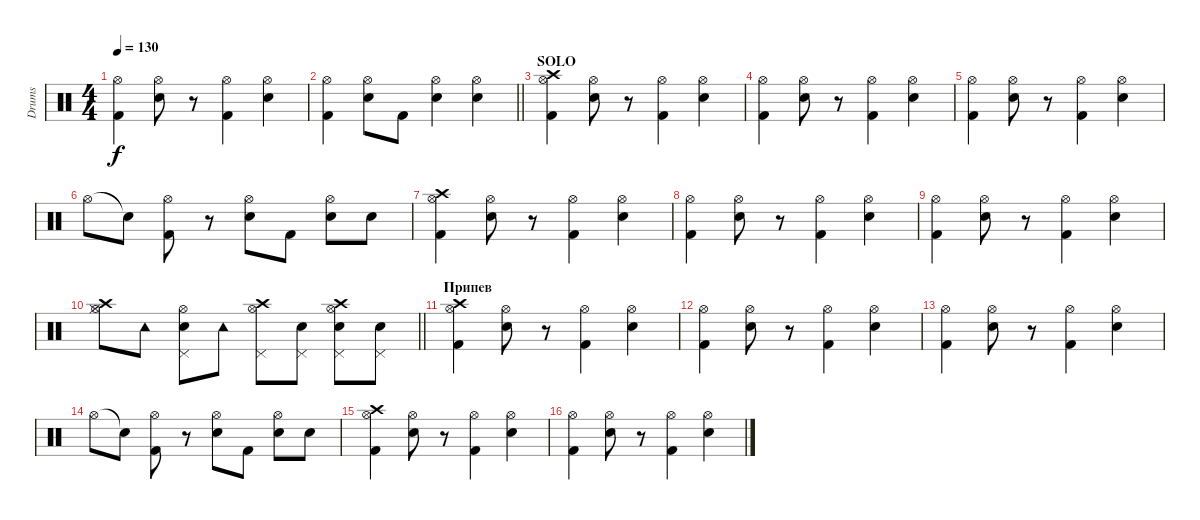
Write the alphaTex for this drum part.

\track ("Drums" "Drums") {instrument percussion}
\staff {score}
\articulation defaults
\ts (4 4)
\tempo 130
\clef neutral
\ks c
("Kick (hit) 2" "Hi-Hat (open)").4{dy f} ("Snare (hit) 2" "Hi-Hat (open)").8 r.8 ("Kick (hit) 2" "Hi-Hat (open)").4 ("Snare (hit) 2" "Hi-Hat (open)").4 |
\barLineRight lightlight
("Kick (hit) 2" "Hi-Hat (open)").4 ("Snare (hit) 2" "Hi-Hat (open)").8 "Kick (hit) 2".8 ("Snare (hit) 2" "Hi-Hat (open)").4 ("Snare (hit) 2" "Hi-Hat (open)").4 |
\section ("" "SOLO")
("Crash high (hit)" "Kick (hit) 2" "Hi-Hat (open)").4 ("Snare (hit) 2" "Hi-Hat (open)").8 r.8 ("Kick (hit) 2" "Hi-Hat (open)").4 ("Snare (hit) 2" "Hi-Hat (open)").4 |
("Kick (hit) 2" "Hi-Hat (open)").4 ("Snare (hit) 2" "Hi-Hat (open)").8 r.8 ("Kick (hit) 2" "Hi-Hat (open)").4 ("Snare (hit) 2" "Hi-Hat (open)").4 |
("Kick (hit) 2" "Hi-Hat (open)").4 ("Snare (hit) 2" "Hi-Hat (open)").8 r.8 ("Kick (hit) 2" "Hi-Hat (open)").4 ("Snare (hit) 2" "Hi-Hat (open)").4 |
"Hi-Hat (open)".8 "Snare (hit)"{t}.8 ("Kick (hit) 2" "Hi-Hat (open)").8 r.8 ("Electric Snare (hit)" "Hi-Hat (open)").8 "Kick (hit) 2".8 ("Snare (hit) 2" "Hi-Hat (open)").8 "Electric Snare (hit)".8 |
("Crash high (hit)" "Kick (hit) 2" "Hi-Hat (open)").4 ("Snare (hit) 2" "Hi-Hat (open)").8 r.8 ("Kick (hit) 2" "Hi-Hat (open)").4 ("Snare (hit) 2" "Hi-Hat (open)").4 |
("Kick (hit) 2" "Hi-Hat (open)").4 ("Snare (hit) 2" "Hi-Hat (open)").8 r.8 ("Kick (hit) 2" "Hi-Hat (open)").4 ("Snare (hit) 2" "Hi-Hat (open)").4 |
("Kick (hit) 2" "Hi-Hat (open)").4 ("Snare (hit) 2" "Hi-Hat (open)").8 r.8 ("Kick (hit) 2" "Hi-Hat (open)").4 ("Snare (hit) 2" "Hi-Hat (open)").4 |
\barLineRight lightlight
("Hi-Hat (open)" "Crash high (hit)" "Hi-Hat (closed)").8 "Tambourine (hit)".8 ("Hi-Hat (open)" "Pedal Hi-Hat (hit)" "Snare (hit) 2").8 "Tambourine (hit)".8 ("Hi-Hat (open)" "Crash high (hit)" "Pedal Hi-Hat (hit)").8 ("Pedal Hi-Hat (hit)" "Snare (hit) 2").8 ("Hi-Hat (open)" "Crash high (hit)" "Pedal Hi-Hat (hit)" "Snare (hit) 2").8 ("Pedal Hi-Hat (hit)" "Snare (hit) 2").8 |
\section ("" "Припев")
("Crash high (hit)" "Kick (hit) 2" "Hi-Hat (open)").4 ("Snare (hit) 2" "Hi-Hat (open)").8 r.8 ("Kick (hit) 2" "Hi-Hat (open)").4 ("Snare (hit) 2" "Hi-Hat (open)").4 |
("Kick (hit) 2" "Hi-Hat (open)").4 ("Snare (hit) 2" "Hi-Hat (open)").8 r.8 ("Kick (hit) 2" "Hi-Hat (open)").4 ("Snare (hit) 2" "Hi-Hat (open)").4 |
("Kick (hit) 2" "Hi-Hat (open)").4 ("Snare (hit) 2" "Hi-Hat (open)").8 r.8 ("Kick (hit) 2" "Hi-Hat (open)").4 ("Snare (hit) 2" "Hi-Hat (open)").4 |
"Hi-Hat (open)".8 "Snare (hit)"{t}.8 ("Kick (hit) 2" "Hi-Hat (open)").8 r.8 ("Electric Snare (hit)" "Hi-Hat (open)").8 "Kick (hit) 2".8 ("Snare (hit) 2" "Hi-Hat (open)").8 "Electric Snare (hit)".8 |
("Crash high (hit)" "Kick (hit) 2" "Hi-Hat (open)").4 ("Snare (hit) 2" "Hi-Hat (open)").8 r.8 ("Kick (hit) 2" "Hi-Hat (open)").4 ("Snare (hit) 2" "Hi-Hat (open)").4 |
("Kick (hit) 2" "Hi-Hat (open)").4 ("Snare (hit) 2" "Hi-Hat (open)").8 r.8 ("Kick (hit) 2" "Hi-Hat (open)").4 ("Snare (hit) 2" "Hi-Hat (open)").4
